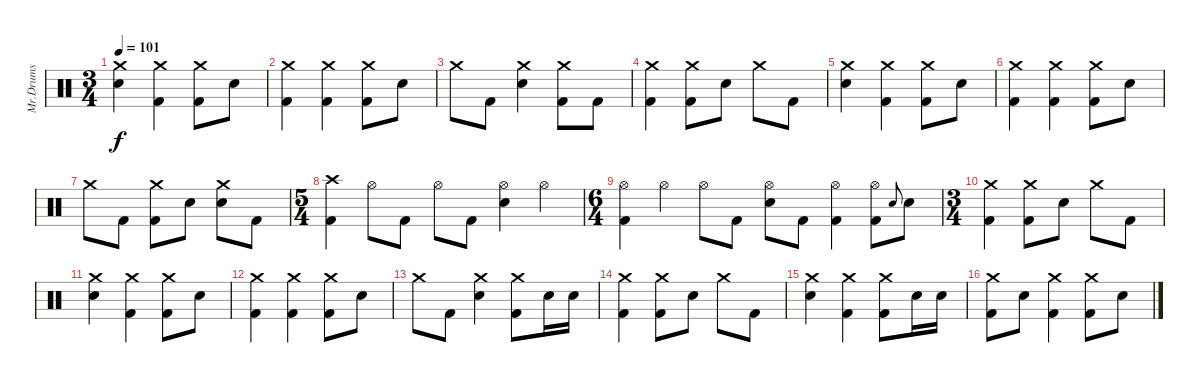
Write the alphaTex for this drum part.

\track ("Mr.Drums" "Mr.Drums") {instrument percussion}
\staff {score}
\articulation defaults
\ts (3 4)
\tempo 101
\clef neutral
\ks c
("Crash medium (hit)" "Electric Snare (hit)").4{dy f} ("Crash medium (hit)" "Kick (hit) 2").4 ("Crash medium (hit)" "Kick (hit) 2").8 "Electric Snare (hit)".8 |
("Crash medium (hit)" "Kick (hit) 2").4 ("Crash medium (hit)" "Kick (hit) 2").4 ("Crash medium (hit)" "Kick (hit) 2").8 "Electric Snare (hit)".8 |
"Crash medium (hit)".8 "Kick (hit) 2".8 ("Crash medium (hit)" "Electric Snare (hit)").4 ("Crash medium (hit)" "Kick (hit) 2").8 "Kick (hit) 2".8 |
("Crash medium (hit)" "Kick (hit) 2").4 ("Crash medium (hit)" "Kick (hit) 2").8 "Electric Snare (hit)".8 "Crash medium (hit)".8 "Kick (hit) 2".8 |
("Crash medium (hit)" "Electric Snare (hit)").4 ("Crash medium (hit)" "Kick (hit) 2").4 ("Crash medium (hit)" "Kick (hit) 2").8 "Electric Snare (hit)".8 |
("Crash medium (hit)" "Kick (hit) 2").4 ("Crash medium (hit)" "Kick (hit) 2").4 ("Crash medium (hit)" "Kick (hit) 2").8 "Electric Snare (hit)".8 |
"Crash medium (hit)".8 "Kick (hit) 2".8 ("Crash medium (hit)" "Kick (hit) 2").8 "Electric Snare (hit)".8 ("Crash medium (hit)" "Electric Snare (hit)").8 "Kick (hit) 2".8 |
\ts (5 4)
("Crash high (hit)" "Kick (hit) 2").4 "Hi-Hat (open)".8 "Kick (hit) 2".8 "Hi-Hat (open)".8 "Kick (hit) 2".8 ("Hi-Hat (open)" "Electric Snare (hit)").4 "Hi-Hat (open)".4 |
\ts (6 4)
("Hi-Hat (open)" "Kick (hit) 2").4 "Hi-Hat (open)".4 "Hi-Hat (open)".8 "Kick (hit) 2".8 ("Hi-Hat (open)" "Electric Snare (hit)").8 "Kick (hit) 2".8 ("Hi-Hat (open)" "Kick (hit) 2").4 ("Hi-Hat (open)" "Kick (hit) 2").8 "Electric Snare (hit)".8{gr onbeat} "Electric Snare (hit)".8 |
\ts (3 4)
("Crash medium (hit)" "Kick (hit) 2").4 ("Crash medium (hit)" "Kick (hit) 2").8 "Electric Snare (hit)".8 "Crash medium (hit)".8 "Kick (hit) 2".8 |
("Crash medium (hit)" "Electric Snare (hit)").4 ("Crash medium (hit)" "Kick (hit) 2").4 ("Crash medium (hit)" "Kick (hit) 2").8 "Electric Snare (hit)".8 |
("Crash medium (hit)" "Kick (hit) 2").4 ("Crash medium (hit)" "Kick (hit) 2").4 ("Crash medium (hit)" "Kick (hit) 2").8 "Electric Snare (hit)".8 |
"Crash medium (hit)".8 "Kick (hit) 2".8 ("Crash medium (hit)" "Electric Snare (hit)").4 ("Crash medium (hit)" "Kick (hit) 2").8 "Electric Snare (hit)".16 "Electric Snare (hit)".16 |
("Crash medium (hit)" "Kick (hit) 2").4 ("Crash medium (hit)" "Kick (hit) 2").8 "Electric Snare (hit)".8 "Crash medium (hit)".8 "Kick (hit) 2".8 |
("Crash medium (hit)" "Electric Snare (hit)").4 ("Crash medium (hit)" "Kick (hit) 2").4 ("Crash medium (hit)" "Kick (hit) 2").8 "Electric Snare (hit)".16 "Electric Snare (hit)".16 |
("Crash medium (hit)" "Kick (hit) 2").8 "Electric Snare (hit)".8 ("Crash medium (hit)" "Kick (hit) 2").4 ("Crash medium (hit)" "Kick (hit) 2").8 "Electric Snare (hit)".8
